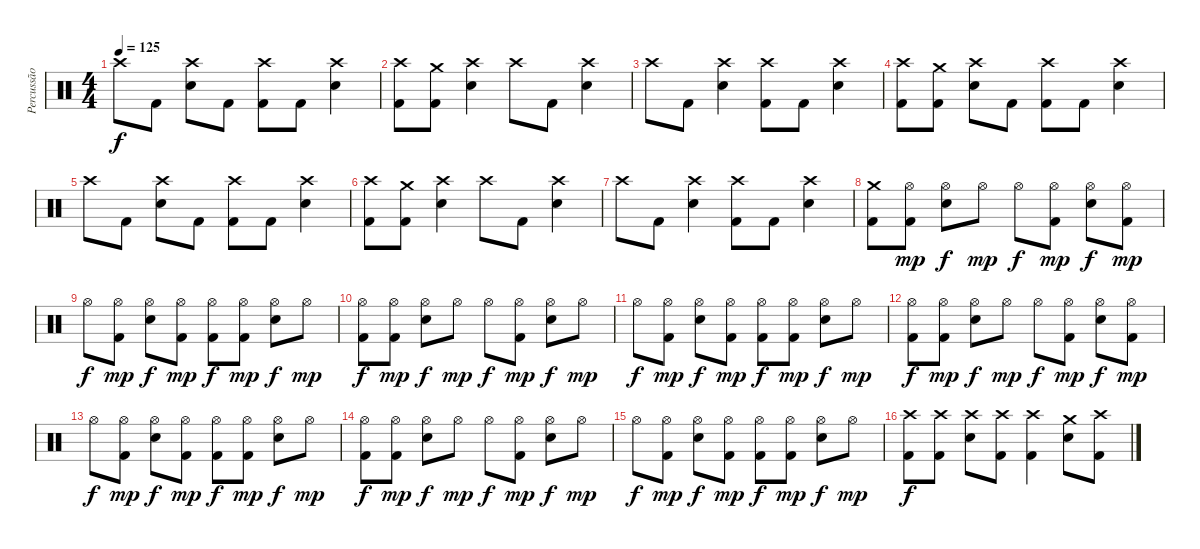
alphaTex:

\track ("Percussão" "Percussão") {instrument percussion}
\staff {score}
\articulation defaults
\ts (4 4)
\tempo 125
\clef neutral
\ks c "Crash high (hit)".8{dy f} "Kick (hit) 2".8
("Crash high (hit)" "Electric Snare (hit)").8 "Kick (hit) 2".8 ("Crash high (hit)" "Kick (hit) 2").8 "Kick (hit) 2".8 ("Crash high (hit)" "Electric Snare (hit)").4 |
("Crash high (hit)" "Kick (hit) 2").8 ("Crash medium (hit)" "Kick (hit) 2").8 ("Crash high (hit)" "Electric Snare (hit)").4 "Crash high (hit)".8 "Kick (hit) 2".8 ("Crash high (hit)" "Electric Snare (hit)").4 |
"Crash high (hit)".8 "Kick (hit) 2".8 ("Crash high (hit)" "Electric Snare (hit)").4 ("Crash high (hit)" "Kick (hit) 2").8 "Kick (hit) 2".8 ("Crash high (hit)" "Electric Snare (hit)").4 |
("Crash high (hit)" "Kick (hit) 2").8 ("Crash medium (hit)" "Kick (hit) 2").8 ("Crash high (hit)" "Electric Snare (hit)").8 "Kick (hit) 2".8 ("Crash high (hit)" "Kick (hit) 2").8 "Kick (hit) 2".8 ("Crash high (hit)" "Electric Snare (hit)").4 |
"Crash high (hit)".8 "Kick (hit) 2".8 ("Crash high (hit)" "Electric Snare (hit)").8 "Kick (hit) 2".8 ("Crash high (hit)" "Kick (hit) 2").8 "Kick (hit) 2".8 ("Crash high (hit)" "Electric Snare (hit)").4 |
("Crash high (hit)" "Kick (hit) 2").8 ("Crash medium (hit)" "Kick (hit) 2").8 ("Crash high (hit)" "Electric Snare (hit)").4 "Crash high (hit)".8 "Kick (hit) 2".8 ("Crash high (hit)" "Electric Snare (hit)").4 |
"Crash high (hit)".8 "Kick (hit) 2".8 ("Crash high (hit)" "Electric Snare (hit)").4 ("Crash high (hit)" "Kick (hit) 2").8 "Kick (hit) 2".8 ("Crash high (hit)" "Electric Snare (hit)").4 |
("Crash medium (hit)" "Kick (hit) 2").8 ("Hi-Hat (open)" "Kick (hit) 2").8{dy mp} ("Hi-Hat (open)" "Electric Snare (hit)").8{dy f} "Hi-Hat (open)".8{dy mp} "Hi-Hat (open)".8{dy f} ("Hi-Hat (open)" "Kick (hit) 2").8{dy mp} ("Hi-Hat (open)" "Electric Snare (hit)").8{dy f} ("Hi-Hat (open)" "Kick (hit) 2").8{dy mp} |
"Hi-Hat (open)".8{dy f} ("Hi-Hat (open)" "Kick (hit) 2").8{dy mp} ("Hi-Hat (open)" "Electric Snare (hit)").8{dy f} ("Hi-Hat (open)" "Kick (hit) 2").8{dy mp} ("Hi-Hat (open)" "Kick (hit) 2").8{dy f} ("Hi-Hat (open)" "Kick (hit) 2").8{dy mp} ("Hi-Hat (open)" "Electric Snare (hit)").8{dy f} "Hi-Hat (open)".8{dy mp} |
("Hi-Hat (open)" "Kick (hit) 2").8{dy f} ("Hi-Hat (open)" "Kick (hit) 2").8{dy mp} ("Hi-Hat (open)" "Electric Snare (hit)").8{dy f} "Hi-Hat (open)".8{dy mp} "Hi-Hat (open)".8{dy f} ("Hi-Hat (open)" "Kick (hit) 2").8{dy mp} ("Hi-Hat (open)" "Electric Snare (hit)").8{dy f} "Hi-Hat (open)".8{dy mp} |
"Hi-Hat (open)".8{dy f} ("Hi-Hat (open)" "Kick (hit) 2").8{dy mp} ("Hi-Hat (open)" "Electric Snare (hit)").8{dy f} ("Hi-Hat (open)" "Kick (hit) 2").8{dy mp} ("Hi-Hat (open)" "Kick (hit) 2").8{dy f} ("Hi-Hat (open)" "Kick (hit) 2").8{dy mp} ("Hi-Hat (open)" "Electric Snare (hit)").8{dy f} "Hi-Hat (open)".8{dy mp} |
("Hi-Hat (open)" "Kick (hit) 2").8{dy f} ("Hi-Hat (open)" "Kick (hit) 2").8{dy mp} ("Hi-Hat (open)" "Electric Snare (hit)").8{dy f} "Hi-Hat (open)".8{dy mp} "Hi-Hat (open)".8{dy f} ("Hi-Hat (open)" "Kick (hit) 2").8{dy mp} ("Hi-Hat (open)" "Electric Snare (hit)").8{dy f} ("Hi-Hat (open)" "Kick (hit) 2").8{dy mp} |
"Hi-Hat (open)".8{dy f} ("Hi-Hat (open)" "Kick (hit) 2").8{dy mp} ("Hi-Hat (open)" "Electric Snare (hit)").8{dy f} ("Hi-Hat (open)" "Kick (hit) 2").8{dy mp} ("Hi-Hat (open)" "Kick (hit) 2").8{dy f} ("Hi-Hat (open)" "Kick (hit) 2").8{dy mp} ("Hi-Hat (open)" "Electric Snare (hit)").8{dy f} "Hi-Hat (open)".8{dy mp} |
("Hi-Hat (open)" "Kick (hit) 2").8{dy f} ("Hi-Hat (open)" "Kick (hit) 2").8{dy mp} ("Hi-Hat (open)" "Electric Snare (hit)").8{dy f} "Hi-Hat (open)".8{dy mp} "Hi-Hat (open)".8{dy f} ("Hi-Hat (open)" "Kick (hit) 2").8{dy mp} ("Hi-Hat (open)" "Electric Snare (hit)").8{dy f} "Hi-Hat (open)".8{dy mp} |
"Hi-Hat (open)".8{dy f} ("Hi-Hat (open)" "Kick (hit) 2").8{dy mp} ("Hi-Hat (open)" "Electric Snare (hit)").8{dy f} ("Hi-Hat (open)" "Kick (hit) 2").8{dy mp} ("Hi-Hat (open)" "Kick (hit) 2").8{dy f} ("Hi-Hat (open)" "Kick (hit) 2").8{dy mp} ("Hi-Hat (open)" "Electric Snare (hit)").8{dy f} "Hi-Hat (open)".8{dy mp} |
("Crash high (hit)" "Kick (hit) 2").8{dy f} ("Crash high (hit)" "Kick (hit) 2").8 ("Crash high (hit)" "Electric Snare (hit)").8 ("Crash high (hit)" "Kick (hit) 2").8 ("Crash high (hit)" "Kick (hit) 2").4 ("Crash medium (hit)" "Electric Snare (hit)").8 ("Crash high (hit)" "Kick (hit) 2").8
